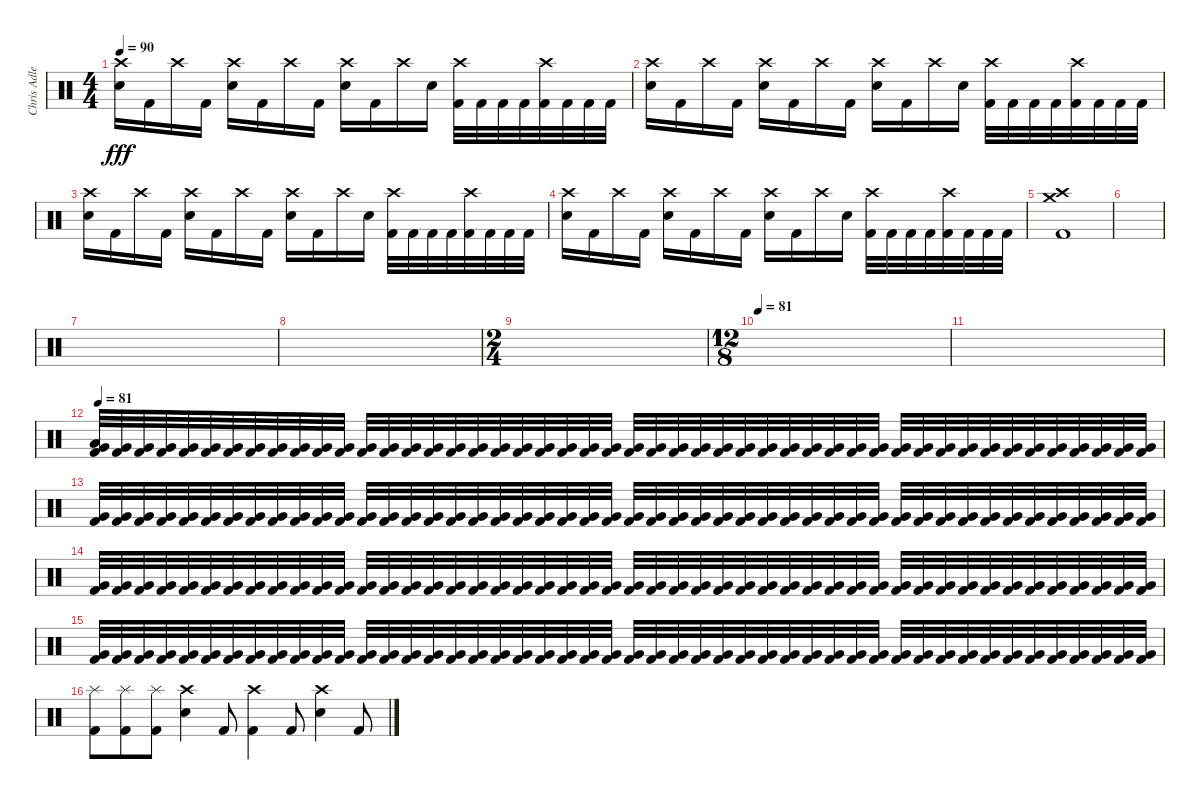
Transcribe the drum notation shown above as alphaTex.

\track ("Chris Adler" "Chris Adle") {instrument percussion}
\staff {score}
\articulation defaults
\ts (4 4)
\tempo 90
\clef neutral
\ks c
("Crash high (hit)" "Electric Snare (hit)").16{dy fff} "Kick (hit) 2".16 "Crash high (hit)".16 "Kick (hit) 2".16 ("Crash high (hit)" "Electric Snare (hit)").16 "Kick (hit) 2".16 "Crash high (hit)".16 "Kick (hit) 2".16 ("Crash high (hit)" "Electric Snare (hit)").16 "Kick (hit) 2".16 "Crash high (hit)".16 "Electric Snare (hit)".16 ("Crash high (hit)" "Kick (hit) 2").32 "Kick (hit) 2".32 "Kick (hit) 2".32 "Kick (hit) 2".32 ("Crash high (hit)" "Kick (hit) 2").32 "Kick (hit) 2".32 "Kick (hit) 2".32 "Kick (hit) 2".32 |
("Crash high (hit)" "Electric Snare (hit)").16 "Kick (hit) 2".16 "Crash high (hit)".16 "Kick (hit) 2".16 ("Crash high (hit)" "Electric Snare (hit)").16 "Kick (hit) 2".16 "Crash high (hit)".16 "Kick (hit) 2".16 ("Crash high (hit)" "Electric Snare (hit)").16 "Kick (hit) 2".16 "Crash high (hit)".16 "Electric Snare (hit)".16 ("Crash high (hit)" "Kick (hit) 2").32 "Kick (hit) 2".32 "Kick (hit) 2".32 "Kick (hit) 2".32 ("Crash high (hit)" "Kick (hit) 2").32 "Kick (hit) 2".32 "Kick (hit) 2".32 "Kick (hit) 2".32 |
("Crash high (hit)" "Electric Snare (hit)").16 "Kick (hit) 2".16 "Crash high (hit)".16 "Kick (hit) 2".16 ("Crash high (hit)" "Electric Snare (hit)").16 "Kick (hit) 2".16 "Crash high (hit)".16 "Kick (hit) 2".16 ("Crash high (hit)" "Electric Snare (hit)").16 "Kick (hit) 2".16 "Crash high (hit)".16 "Electric Snare (hit)".16 ("Crash high (hit)" "Kick (hit) 2").32 "Kick (hit) 2".32 "Kick (hit) 2".32 "Kick (hit) 2".32 ("Crash high (hit)" "Kick (hit) 2").32 "Kick (hit) 2".32 "Kick (hit) 2".32 "Kick (hit) 2".32 |
("Crash high (hit)" "Electric Snare (hit)").16 "Kick (hit) 2".16 "Crash high (hit)".16 "Kick (hit) 2".16 ("Crash high (hit)" "Electric Snare (hit)").16 "Kick (hit) 2".16 "Crash high (hit)".16 "Kick (hit) 2".16 ("Crash high (hit)" "Electric Snare (hit)").16 "Kick (hit) 2".16 "Crash high (hit)".16 "Electric Snare (hit)".16 ("Crash high (hit)" "Kick (hit) 2").32 "Kick (hit) 2".32 "Kick (hit) 2".32 "Kick (hit) 2".32 ("Crash high (hit)" "Kick (hit) 2").32 "Kick (hit) 2".32 "Kick (hit) 2".32 "Kick (hit) 2".32 |
("Crash medium (hit)" "Crash high (hit)" "Kick (hit) 2").1 |
|
|
|
\ts (2 4)
|
\ts (12 8)
\tempo 81
|
|
\tempo 81
("Low Floor Tom (hit)" "Very Low Tom (hit)" "Kick (hit) 2").32 ("Very Low Tom (hit)" "Kick (hit) 2").32{volume 0} ("Very Low Tom (hit)" "Kick (hit) 2").32{volume 7} ("Very Low Tom (hit)" "Kick (hit) 2").32 ("Very Low Tom (hit)" "Kick (hit) 2").32 ("Very Low Tom (hit)" "Kick (hit) 2").32 ("Very Low Tom (hit)" "Kick (hit) 2").32 ("Very Low Tom (hit)" "Kick (hit) 2").32 ("Very Low Tom (hit)" "Kick (hit) 2").32 ("Very Low Tom (hit)" "Kick (hit) 2").32 ("Very Low Tom (hit)" "Kick (hit) 2").32 ("Very Low Tom (hit)" "Kick (hit) 2").32 ("Very Low Tom (hit)" "Kick (hit) 2").32 ("Very Low Tom (hit)" "Kick (hit) 2").32 ("Very Low Tom (hit)" "Kick (hit) 2").32 ("Very Low Tom (hit)" "Kick (hit) 2").32 ("Very Low Tom (hit)" "Kick (hit) 2").32 ("Very Low Tom (hit)" "Kick (hit) 2").32 ("Very Low Tom (hit)" "Kick (hit) 2").32 ("Very Low Tom (hit)" "Kick (hit) 2").32 ("Very Low Tom (hit)" "Kick (hit) 2").32 ("Very Low Tom (hit)" "Kick (hit) 2").32 ("Very Low Tom (hit)" "Kick (hit) 2").32 ("Very Low Tom (hit)" "Kick (hit) 2").32 ("Very Low Tom (hit)" "Kick (hit) 2").32 ("Very Low Tom (hit)" "Kick (hit) 2").32 ("Very Low Tom (hit)" "Kick (hit) 2").32 ("Very Low Tom (hit)" "Kick (hit) 2").32 ("Very Low Tom (hit)" "Kick (hit) 2").32 ("Very Low Tom (hit)" "Kick (hit) 2").32 ("Very Low Tom (hit)" "Kick (hit) 2").32 ("Very Low Tom (hit)" "Kick (hit) 2").32 ("Very Low Tom (hit)" "Kick (hit) 2").32 ("Very Low Tom (hit)" "Kick (hit) 2").32 ("Very Low Tom (hit)" "Kick (hit) 2").32 ("Very Low Tom (hit)" "Kick (hit) 2").32 ("Very Low Tom (hit)" "Kick (hit) 2").32 ("Very Low Tom (hit)" "Kick (hit) 2").32 ("Very Low Tom (hit)" "Kick (hit) 2").32 ("Very Low Tom (hit)" "Kick (hit) 2").32 ("Very Low Tom (hit)" "Kick (hit) 2").32 ("Very Low Tom (hit)" "Kick (hit) 2").32 ("Very Low Tom (hit)" "Kick (hit) 2").32 ("Very Low Tom (hit)" "Kick (hit) 2").32 ("Very Low Tom (hit)" "Kick (hit) 2").32 ("Very Low Tom (hit)" "Kick (hit) 2").32 ("Very Low Tom (hit)" "Kick (hit) 2").32 ("Very Low Tom (hit)" "Kick (hit) 2").32 |
("Very Low Tom (hit)" "Kick (hit) 2").32 ("Very Low Tom (hit)" "Kick (hit) 2").32 ("Very Low Tom (hit)" "Kick (hit) 2").32 ("Very Low Tom (hit)" "Kick (hit) 2").32 ("Very Low Tom (hit)" "Kick (hit) 2").32 ("Very Low Tom (hit)" "Kick (hit) 2").32 ("Very Low Tom (hit)" "Kick (hit) 2").32 ("Very Low Tom (hit)" "Kick (hit) 2").32 ("Very Low Tom (hit)" "Kick (hit) 2").32 ("Very Low Tom (hit)" "Kick (hit) 2").32 ("Very Low Tom (hit)" "Kick (hit) 2").32 ("Very Low Tom (hit)" "Kick (hit) 2").32 ("Very Low Tom (hit)" "Kick (hit) 2").32 ("Very Low Tom (hit)" "Kick (hit) 2").32 ("Very Low Tom (hit)" "Kick (hit) 2").32 ("Very Low Tom (hit)" "Kick (hit) 2").32 ("Very Low Tom (hit)" "Kick (hit) 2").32 ("Very Low Tom (hit)" "Kick (hit) 2").32 ("Very Low Tom (hit)" "Kick (hit) 2").32 ("Very Low Tom (hit)" "Kick (hit) 2").32 ("Very Low Tom (hit)" "Kick (hit) 2").32 ("Very Low Tom (hit)" "Kick (hit) 2").32 ("Very Low Tom (hit)" "Kick (hit) 2").32 ("Very Low Tom (hit)" "Kick (hit) 2").32 ("Very Low Tom (hit)" "Kick (hit) 2").32 ("Very Low Tom (hit)" "Kick (hit) 2").32 ("Very Low Tom (hit)" "Kick (hit) 2").32 ("Very Low Tom (hit)" "Kick (hit) 2").32 ("Very Low Tom (hit)" "Kick (hit) 2").32 ("Very Low Tom (hit)" "Kick (hit) 2").32 ("Very Low Tom (hit)" "Kick (hit) 2").32 ("Very Low Tom (hit)" "Kick (hit) 2").32 ("Very Low Tom (hit)" "Kick (hit) 2").32 ("Very Low Tom (hit)" "Kick (hit) 2").32 ("Very Low Tom (hit)" "Kick (hit) 2").32 ("Very Low Tom (hit)" "Kick (hit) 2").32 ("Very Low Tom (hit)" "Kick (hit) 2").32 ("Very Low Tom (hit)" "Kick (hit) 2").32 ("Very Low Tom (hit)" "Kick (hit) 2").32 ("Very Low Tom (hit)" "Kick (hit) 2").32 ("Very Low Tom (hit)" "Kick (hit) 2").32 ("Very Low Tom (hit)" "Kick (hit) 2").32 ("Very Low Tom (hit)" "Kick (hit) 2").32 ("Very Low Tom (hit)" "Kick (hit) 2").32 ("Very Low Tom (hit)" "Kick (hit) 2").32 ("Very Low Tom (hit)" "Kick (hit) 2").32 ("Very Low Tom (hit)" "Kick (hit) 2").32 ("Very Low Tom (hit)" "Kick (hit) 2").32 |
("Very Low Tom (hit)" "Kick (hit) 2").32 ("Very Low Tom (hit)" "Kick (hit) 2").32 ("Very Low Tom (hit)" "Kick (hit) 2").32 ("Very Low Tom (hit)" "Kick (hit) 2").32 ("Very Low Tom (hit)" "Kick (hit) 2").32 ("Very Low Tom (hit)" "Kick (hit) 2").32 ("Very Low Tom (hit)" "Kick (hit) 2").32 ("Very Low Tom (hit)" "Kick (hit) 2").32 ("Very Low Tom (hit)" "Kick (hit) 2").32 ("Very Low Tom (hit)" "Kick (hit) 2").32 ("Very Low Tom (hit)" "Kick (hit) 2").32 ("Very Low Tom (hit)" "Kick (hit) 2").32 ("Very Low Tom (hit)" "Kick (hit) 2").32 ("Very Low Tom (hit)" "Kick (hit) 2").32 ("Very Low Tom (hit)" "Kick (hit) 2").32 ("Very Low Tom (hit)" "Kick (hit) 2").32 ("Very Low Tom (hit)" "Kick (hit) 2").32 ("Very Low Tom (hit)" "Kick (hit) 2").32 ("Very Low Tom (hit)" "Kick (hit) 2").32 ("Very Low Tom (hit)" "Kick (hit) 2").32 ("Very Low Tom (hit)" "Kick (hit) 2").32 ("Very Low Tom (hit)" "Kick (hit) 2").32 ("Very Low Tom (hit)" "Kick (hit) 2").32 ("Very Low Tom (hit)" "Kick (hit) 2").32 ("Very Low Tom (hit)" "Kick (hit) 2").32 ("Very Low Tom (hit)" "Kick (hit) 2").32 ("Very Low Tom (hit)" "Kick (hit) 2").32 ("Very Low Tom (hit)" "Kick (hit) 2").32 ("Very Low Tom (hit)" "Kick (hit) 2").32 ("Very Low Tom (hit)" "Kick (hit) 2").32 ("Very Low Tom (hit)" "Kick (hit) 2").32 ("Very Low Tom (hit)" "Kick (hit) 2").32 ("Very Low Tom (hit)" "Kick (hit) 2").32 ("Very Low Tom (hit)" "Kick (hit) 2").32 ("Very Low Tom (hit)" "Kick (hit) 2").32 ("Very Low Tom (hit)" "Kick (hit) 2").32 ("Very Low Tom (hit)" "Kick (hit) 2").32{volume 16} ("Very Low Tom (hit)" "Kick (hit) 2").32 ("Very Low Tom (hit)" "Kick (hit) 2").32 ("Very Low Tom (hit)" "Kick (hit) 2").32 ("Very Low Tom (hit)" "Kick (hit) 2").32 ("Very Low Tom (hit)" "Kick (hit) 2").32 ("Very Low Tom (hit)" "Kick (hit) 2").32 ("Very Low Tom (hit)" "Kick (hit) 2").32 ("Very Low Tom (hit)" "Kick (hit) 2").32 ("Very Low Tom (hit)" "Kick (hit) 2").32 ("Very Low Tom (hit)" "Kick (hit) 2").32 ("Very Low Tom (hit)" "Kick (hit) 2").32 |
("Very Low Tom (hit)" "Kick (hit) 2").32 ("Very Low Tom (hit)" "Kick (hit) 2").32 ("Very Low Tom (hit)" "Kick (hit) 2").32 ("Very Low Tom (hit)" "Kick (hit) 2").32 ("Very Low Tom (hit)" "Kick (hit) 2").32 ("Very Low Tom (hit)" "Kick (hit) 2").32 ("Very Low Tom (hit)" "Kick (hit) 2").32 ("Very Low Tom (hit)" "Kick (hit) 2").32 ("Very Low Tom (hit)" "Kick (hit) 2").32 ("Very Low Tom (hit)" "Kick (hit) 2").32 ("Very Low Tom (hit)" "Kick (hit) 2").32 ("Very Low Tom (hit)" "Kick (hit) 2").32 ("Very Low Tom (hit)" "Kick (hit) 2").32 ("Very Low Tom (hit)" "Kick (hit) 2").32 ("Very Low Tom (hit)" "Kick (hit) 2").32 ("Very Low Tom (hit)" "Kick (hit) 2").32 ("Very Low Tom (hit)" "Kick (hit) 2").32 ("Very Low Tom (hit)" "Kick (hit) 2").32 ("Very Low Tom (hit)" "Kick (hit) 2").32 ("Very Low Tom (hit)" "Kick (hit) 2").32 ("Very Low Tom (hit)" "Kick (hit) 2").32 ("Very Low Tom (hit)" "Kick (hit) 2").32 ("Very Low Tom (hit)" "Kick (hit) 2").32 ("Very Low Tom (hit)" "Kick (hit) 2").32 ("Very Low Tom (hit)" "Kick (hit) 2").32 ("Very Low Tom (hit)" "Kick (hit) 2").32 ("Very Low Tom (hit)" "Kick (hit) 2").32 ("Very Low Tom (hit)" "Kick (hit) 2").32 ("Very Low Tom (hit)" "Kick (hit) 2").32 ("Very Low Tom (hit)" "Kick (hit) 2").32 ("Very Low Tom (hit)" "Kick (hit) 2").32 ("Very Low Tom (hit)" "Kick (hit) 2").32 ("Very Low Tom (hit)" "Kick (hit) 2").32 ("Very Low Tom (hit)" "Kick (hit) 2").32 ("Very Low Tom (hit)" "Kick (hit) 2").32 ("Very Low Tom (hit)" "Kick (hit) 2").32 ("Very Low Tom (hit)" "Kick (hit) 2").32 ("Very Low Tom (hit)" "Kick (hit) 2").32 ("Very Low Tom (hit)" "Kick (hit) 2").32 ("Very Low Tom (hit)" "Kick (hit) 2").32 ("Very Low Tom (hit)" "Kick (hit) 2").32 ("Very Low Tom (hit)" "Kick (hit) 2").32 ("Very Low Tom (hit)" "Kick (hit) 2").32 ("Very Low Tom (hit)" "Kick (hit) 2").32 ("Very Low Tom (hit)" "Kick (hit) 2").32 ("Very Low Tom (hit)" "Kick (hit) 2").32 ("Very Low Tom (hit)" "Kick (hit) 2").32 ("Very Low Tom (hit)" "Kick (hit) 2").32 |
("Splash (hit)" "Kick (hit) 2").8 ("Splash (hit)" "Kick (hit) 2").8 ("Splash (hit)" "Kick (hit) 2").8 ("Crash high (hit)" "Electric Snare (hit)").4 "Kick (hit) 2".8 ("Crash high (hit)" "Kick (hit) 2").4 "Kick (hit) 2".8 ("Crash high (hit)" "Electric Snare (hit)").4 "Kick (hit) 2".8
